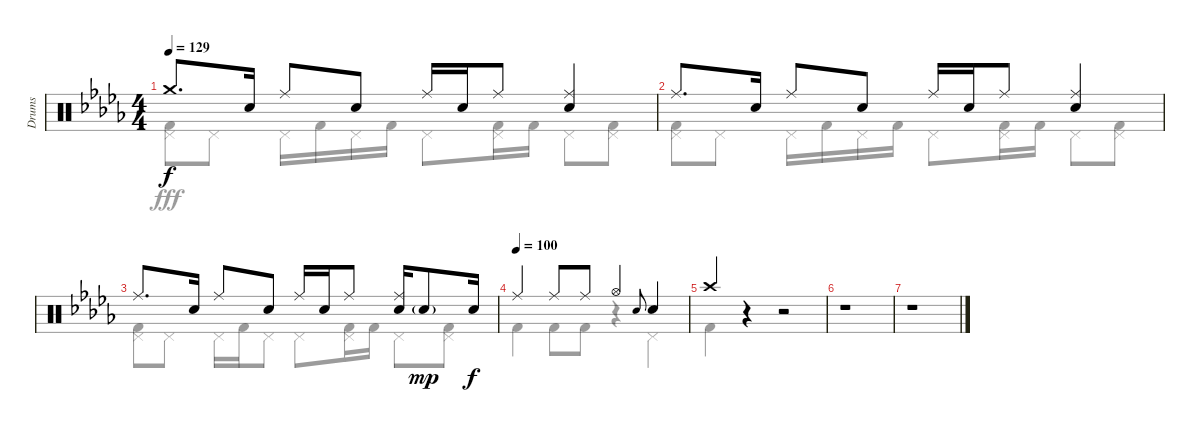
\track ("Drums" "Drums") {instrument percussion}
\staff {score}
\articulation defaults
\voice
\ts (4 4)
\tempo 129
\clef neutral
\ks db "Crash medium (hit)".8{d dy f} "Snare (hit) 2".16 "Ride (middle)".8 "Snare (hit) 2".8 "Ride (middle)".16 "Snare (hit) 2".16 "Ride (middle)".8
("Ride (middle)" "Snare (hit) 2").4 |
"Ride (middle)".8{d} "Snare (hit) 2".16 "Ride (middle)".8 "Snare (hit) 2".8 "Ride (middle)".16 "Snare (hit) 2".16 "Ride (middle)".8 ("Ride (middle)" "Snare (hit) 2").4 |
"Ride (middle)".8{d} "Snare (hit) 2".16 "Ride (middle)".8 "Snare (hit) 2".8 "Ride (middle)".16 "Snare (hit) 2".16 "Ride (middle)".8 ("Ride (middle)" "Snare (hit) 2").16 "Snare (hit) 2"{g}.8{dy mp} "Snare (hit) 2".16{dy f} |
\tempo (100)
"Ride (middle)".4 "Ride (middle)".8 "Ride (middle)".8 "Hi-Hat (open)".4 "Snare (hit) 2".8{gr onbeat} "Snare (hit) 2".4 |
"Crash high (hit)".4 r.4 r.2 |
r.1 |
r.1
\voice
\clef neutral
\ottava regular
\simile none
\ks db
("Pedal Hi-Hat (hit)" "Kick (hit) 2").8{dy fff} "Pedal Hi-Hat (hit)".8 "Pedal Hi-Hat (hit)".16 "Kick (hit) 2".16 "Pedal Hi-Hat (hit)".16 "Kick (hit) 2".16 "Pedal Hi-Hat (hit)".8 ("Pedal Hi-Hat (hit)" "Kick (hit) 2").16 "Kick (hit) 2".16 "Pedal Hi-Hat (hit)".8 ("Pedal Hi-Hat (hit)" "Kick (hit) 2").8 |
("Pedal Hi-Hat (hit)" "Kick (hit) 2").8 "Pedal Hi-Hat (hit)".8 "Pedal Hi-Hat (hit)".16 "Kick (hit) 2".16 "Pedal Hi-Hat (hit)".16 "Kick (hit) 2".16 "Pedal Hi-Hat (hit)".8 ("Pedal Hi-Hat (hit)" "Kick (hit) 2").16 "Kick (hit) 2".16 "Pedal Hi-Hat (hit)".8 ("Pedal Hi-Hat (hit)" "Kick (hit) 2").8 |
("Pedal Hi-Hat (hit)" "Kick (hit) 2").8 "Pedal Hi-Hat (hit)".8 "Pedal Hi-Hat (hit)".16 "Kick (hit) 2".16 "Pedal Hi-Hat (hit)".8 "Pedal Hi-Hat (hit)".8 ("Pedal Hi-Hat (hit)" "Kick (hit) 2").16 "Kick (hit) 2".16 "Pedal Hi-Hat (hit)".8 ("Pedal Hi-Hat (hit)" "Kick (hit) 2").8 |
"Kick (hit) 2".4 "Kick (hit) 2".8 "Kick (hit) 2".8 r.4 "Pedal Hi-Hat (hit)".4 |
"Kick (hit) 2".4 r.4 r.2 |
r.1 |
r.1
